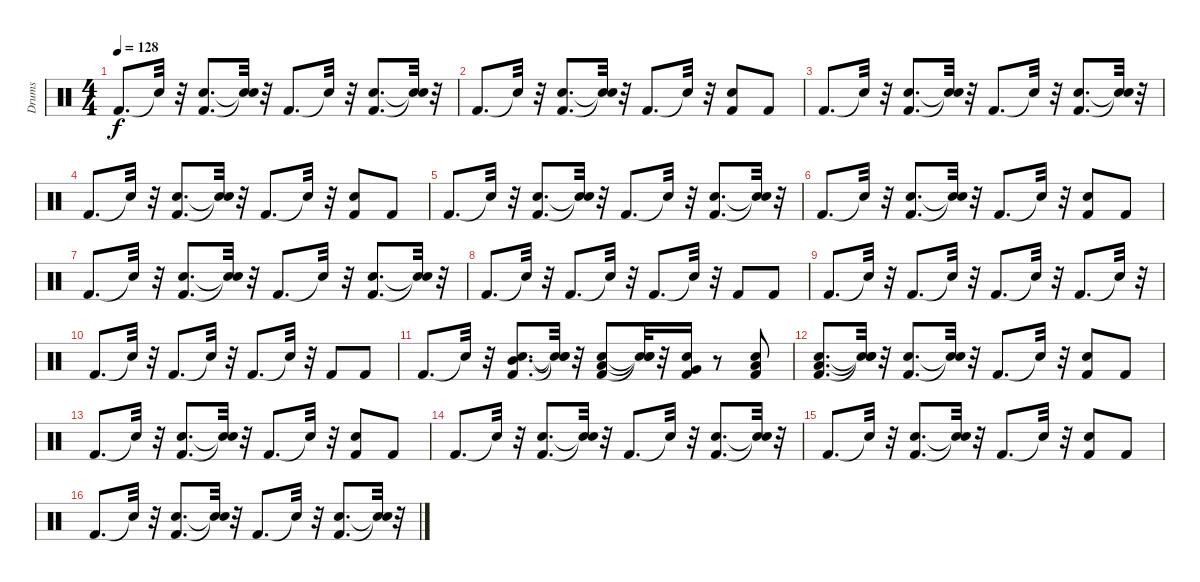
\track ("Drums" "Drums") {instrument percussion}
\staff {score}
\articulation defaults
\ts (4 4)
\tempo 128
\clef neutral
\ks c "Kick (hit) 2".8{d dy f} "Snare (hit)"{t}.32
r.32 ("Snare (hit) 2" "Kick (hit) 2").8{d} ("Snare (hit)"{t} "Snare (hit)"{t}).32 r.32 "Kick (hit) 2".8{d} "Snare (hit)"{t}.32 r.32 ("Kick (hit) 2" "Snare (hit) 2").8{d} ("Snare (hit)"{t} "Snare (hit)"{t}).32 r.32 |
"Kick (hit) 2".8{d} "Snare (hit)"{t}.32 r.32 ("Kick (hit) 2" "Snare (hit) 2").8{d} ("Snare (hit)"{t} "Snare (hit)"{t}).32 r.32 "Kick (hit) 2".8{d} "Snare (hit)"{t}.32 r.32 ("Snare (hit) 2" "Kick (hit) 2").8 "Kick (hit) 2".8 |
"Kick (hit) 2".8{d} "Snare (hit)"{t}.32 r.32 ("Snare (hit) 2" "Kick (hit) 2").8{d} ("Snare (hit)"{t} "Snare (hit)"{t}).32 r.32 "Kick (hit) 2".8{d} "Snare (hit)"{t}.32 r.32 ("Kick (hit) 2" "Snare (hit) 2").8{d} ("Snare (hit)"{t} "Snare (hit)"{t}).32 r.32 |
"Kick (hit) 2".8{d} "Snare (hit)"{t}.32 r.32 ("Kick (hit) 2" "Snare (hit) 2").8{d} ("Snare (hit)"{t} "Snare (hit)"{t}).32 r.32 "Kick (hit) 2".8{d} "Snare (hit)"{t}.32 r.32 ("Kick (hit) 2" "Snare (hit) 2").8 "Kick (hit) 2".8 |
"Kick (hit) 2".8{d} "Snare (hit)"{t}.32 r.32 ("Kick (hit) 2" "Snare (hit) 2").8{d} ("Snare (hit)"{t} "Snare (hit)"{t}).32 r.32 "Kick (hit) 2".8{d} "Snare (hit)"{t}.32 r.32 ("Snare (hit) 2" "Kick (hit) 2").8{d} ("Snare (hit)"{t} "Snare (hit)"{t}).32 r.32 |
"Kick (hit) 2".8{d} "Snare (hit)"{t}.32 r.32 ("Kick (hit) 2" "Snare (hit) 2").8{d} ("Snare (hit)"{t} "Snare (hit)"{t}).32 r.32 "Kick (hit) 2".8{d} "Snare (hit)"{t}.32 r.32 ("Kick (hit) 2" "Snare (hit) 2").8 "Kick (hit) 2".8 |
"Kick (hit) 2".8{d} "Snare (hit)"{t}.32 r.32 ("Snare (hit) 2" "Kick (hit) 2").8{d} ("Snare (hit)"{t} "Snare (hit)"{t}).32 r.32 "Kick (hit) 2".8{d} "Snare (hit)"{t}.32 r.32 ("Snare (hit) 2" "Kick (hit) 2").8{d} ("Snare (hit)"{t} "Snare (hit)"{t}).32 r.32 |
"Kick (hit) 2".8{d} "Snare (hit)"{t}.32 r.32 "Kick (hit) 2".8{d} "Snare (hit)"{t}.32 r.32 "Kick (hit) 2".8{d} "Snare (hit)"{t}.32 r.32 "Kick (hit) 2".8 "Kick (hit) 2".8 |
"Kick (hit) 2".8{d} "Snare (hit)"{t}.32 r.32 "Kick (hit) 2".8{d} "Snare (hit)"{t}.32 r.32 "Kick (hit) 2".8{d} "Snare (hit)"{t}.32 r.32 "Kick (hit) 2".8{d} "Snare (hit)"{t}.32 r.32 |
"Kick (hit) 2".8{d} "Snare (hit)"{t}.32 r.32 "Kick (hit) 2".8{d} "Snare (hit)"{t}.32 r.32 "Kick (hit) 2".8{d} "Snare (hit)"{t}.32 r.32 "Kick (hit) 2".8 "Kick (hit) 2".8 |
"Kick (hit) 2".8{d} "Snare (hit)"{t}.32 r.32 ("Mid Tom (hit)" "Snare (hit) 2" "Kick (hit) 2").8{d} ("Snare (hit)"{t} "Snare (hit)"{t} "Snare (hit)"{t}).32 r.32 ("Snare (hit) 2" "Kick (hit) 2" "Low Tom (hit)").8 ("Snare (hit)"{t} "Snare (hit)"{t} "Snare (hit)"{t}).32 r.32 ("Kick (hit) 2" "Very Low Tom (hit)" "Snare (hit) 2").16 r.8 ("Kick (hit) 2" "Low Floor Tom (hit)" "Snare (hit) 2").8 |
("Low Floor Tom (hit)" "Snare (hit) 2" "Kick (hit) 2").8{d} ("Snare (hit)"{t} "Snare (hit)"{t} "Snare (hit)"{t}).32 r.32 ("Kick (hit) 2" "Snare (hit) 2").8{d} ("Snare (hit)"{t} "Snare (hit)"{t}).32 r.32 "Kick (hit) 2".8{d} "Snare (hit)"{t}.32 r.32 ("Kick (hit) 2" "Snare (hit) 2").8 "Kick (hit) 2".8 |
"Kick (hit) 2".8{d} "Snare (hit)"{t}.32 r.32 ("Kick (hit) 2" "Snare (hit) 2").8{d} ("Snare (hit)"{t} "Snare (hit)"{t}).32 r.32 "Kick (hit) 2".8{d} "Snare (hit)"{t}.32 r.32 ("Kick (hit) 2" "Snare (hit) 2").8 "Kick (hit) 2".8 |
"Kick (hit) 2".8{d} "Snare (hit)"{t}.32 r.32 ("Kick (hit) 2" "Snare (hit) 2").8{d} ("Snare (hit)"{t} "Snare (hit)"{t}).32 r.32 "Kick (hit) 2".8{d} "Snare (hit)"{t}.32 r.32 ("Snare (hit) 2" "Kick (hit) 2").8{d} ("Snare (hit)"{t} "Snare (hit)"{t}).32 r.32 |
"Kick (hit) 2".8{d} "Snare (hit)"{t}.32 r.32 ("Snare (hit) 2" "Kick (hit) 2").8{d} ("Snare (hit)"{t} "Snare (hit)"{t}).32 r.32 "Kick (hit) 2".8{d} "Snare (hit)"{t}.32 r.32 ("Snare (hit) 2" "Kick (hit) 2").8 "Kick (hit) 2".8 |
"Kick (hit) 2".8{d} "Snare (hit)"{t}.32 r.32 ("Kick (hit) 2" "Snare (hit) 2").8{d} ("Snare (hit)"{t} "Snare (hit)"{t}).32 r.32 "Kick (hit) 2".8{d} "Snare (hit)"{t}.32 r.32 ("Kick (hit) 2" "Snare (hit) 2").8{d} ("Snare (hit)"{t} "Snare (hit)"{t}).32 r.32
